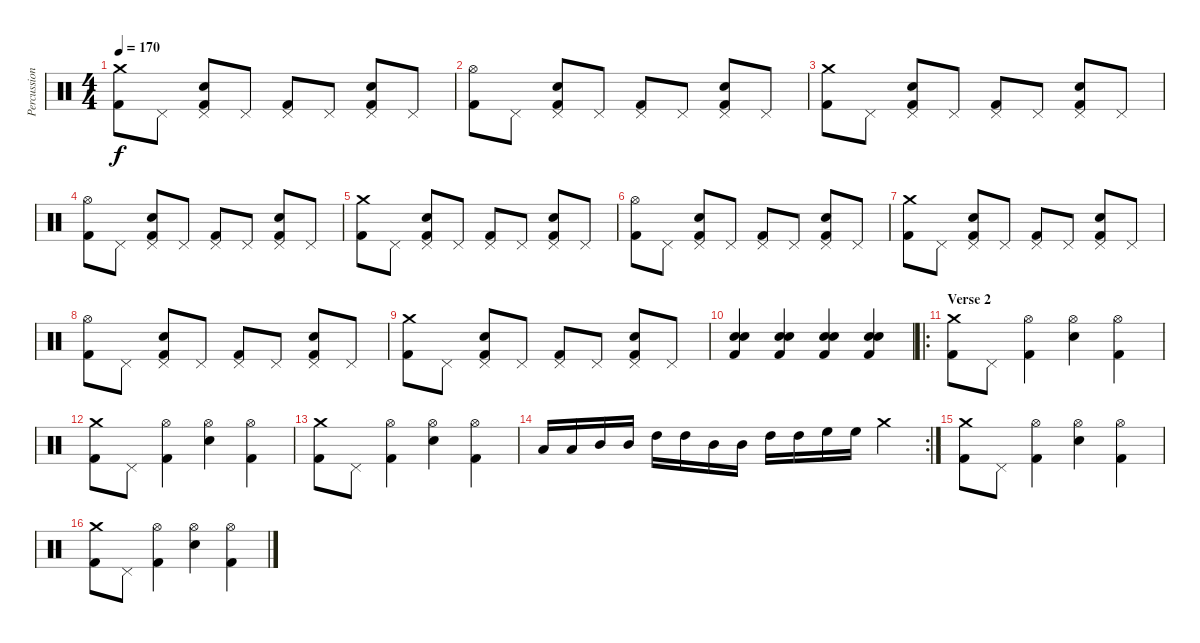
\track ("Percussion" "Percussion") {instrument percussion}
\staff {score}
\articulation defaults
\ts (4 4)
\tempo 170
\clef neutral
\ks c
("Crash medium (hit)" "Kick (hit) 2").8{dy f} "Pedal Hi-Hat (hit)".8 ("Pedal Hi-Hat (hit)" "Electric Snare (hit)" "Kick (hit) 2").8 "Pedal Hi-Hat (hit)".8 ("Pedal Hi-Hat (hit)" "Kick (hit) 2").8 "Pedal Hi-Hat (hit)".8 ("Pedal Hi-Hat (hit)" "Electric Snare (hit)" "Kick (hit) 2").8 "Pedal Hi-Hat (hit)".8 |
("Hi-Hat (open)" "Kick (hit) 2").8 "Pedal Hi-Hat (hit)".8 ("Pedal Hi-Hat (hit)" "Electric Snare (hit)" "Kick (hit) 2").8 "Pedal Hi-Hat (hit)".8 ("Pedal Hi-Hat (hit)" "Kick (hit) 2").8 "Pedal Hi-Hat (hit)".8 ("Pedal Hi-Hat (hit)" "Electric Snare (hit)" "Kick (hit) 2").8 "Pedal Hi-Hat (hit)".8 |
("Crash medium (hit)" "Kick (hit) 2").8 "Pedal Hi-Hat (hit)".8 ("Pedal Hi-Hat (hit)" "Electric Snare (hit)" "Kick (hit) 2").8 "Pedal Hi-Hat (hit)".8 ("Pedal Hi-Hat (hit)" "Kick (hit) 2").8 "Pedal Hi-Hat (hit)".8 ("Pedal Hi-Hat (hit)" "Electric Snare (hit)" "Kick (hit) 2").8 "Pedal Hi-Hat (hit)".8 |
("Hi-Hat (open)" "Kick (hit) 2").8 "Pedal Hi-Hat (hit)".8 ("Pedal Hi-Hat (hit)" "Electric Snare (hit)" "Kick (hit) 2").8 "Pedal Hi-Hat (hit)".8 ("Pedal Hi-Hat (hit)" "Kick (hit) 2").8 "Pedal Hi-Hat (hit)".8 ("Pedal Hi-Hat (hit)" "Electric Snare (hit)" "Kick (hit) 2").8 "Pedal Hi-Hat (hit)".8 |
("Crash medium (hit)" "Kick (hit) 2").8 "Pedal Hi-Hat (hit)".8 ("Pedal Hi-Hat (hit)" "Electric Snare (hit)" "Kick (hit) 2").8 "Pedal Hi-Hat (hit)".8 ("Pedal Hi-Hat (hit)" "Kick (hit) 2").8 "Pedal Hi-Hat (hit)".8 ("Pedal Hi-Hat (hit)" "Electric Snare (hit)" "Kick (hit) 2").8 "Pedal Hi-Hat (hit)".8 |
("Hi-Hat (open)" "Kick (hit) 2").8 "Pedal Hi-Hat (hit)".8 ("Pedal Hi-Hat (hit)" "Electric Snare (hit)" "Kick (hit) 2").8 "Pedal Hi-Hat (hit)".8 ("Pedal Hi-Hat (hit)" "Kick (hit) 2").8 "Pedal Hi-Hat (hit)".8 ("Pedal Hi-Hat (hit)" "Electric Snare (hit)" "Kick (hit) 2").8 "Pedal Hi-Hat (hit)".8 |
("Crash medium (hit)" "Kick (hit) 2").8 "Pedal Hi-Hat (hit)".8 ("Pedal Hi-Hat (hit)" "Electric Snare (hit)" "Kick (hit) 2").8 "Pedal Hi-Hat (hit)".8 ("Pedal Hi-Hat (hit)" "Kick (hit) 2").8 "Pedal Hi-Hat (hit)".8 ("Pedal Hi-Hat (hit)" "Electric Snare (hit)" "Kick (hit) 2").8 "Pedal Hi-Hat (hit)".8 |
("Hi-Hat (open)" "Kick (hit) 2").8 "Pedal Hi-Hat (hit)".8 ("Pedal Hi-Hat (hit)" "Electric Snare (hit)" "Kick (hit) 2").8 "Pedal Hi-Hat (hit)".8 ("Pedal Hi-Hat (hit)" "Kick (hit) 2").8 "Pedal Hi-Hat (hit)".8 ("Pedal Hi-Hat (hit)" "Electric Snare (hit)" "Kick (hit) 2").8 "Pedal Hi-Hat (hit)".8 |
("Crash medium (hit)" "Kick (hit) 2").8 "Pedal Hi-Hat (hit)".8 ("Pedal Hi-Hat (hit)" "Electric Snare (hit)" "Kick (hit) 2").8 "Pedal Hi-Hat (hit)".8 ("Pedal Hi-Hat (hit)" "Kick (hit) 2").8 "Pedal Hi-Hat (hit)".8 ("Pedal Hi-Hat (hit)" "Electric Snare (hit)" "Kick (hit) 2").8 "Pedal Hi-Hat (hit)".8 |
("Electric Snare (hit)" "Electric Snare (hit)" "Kick (hit) 2").4 ("Electric Snare (hit)" "Electric Snare (hit)" "Kick (hit) 2").4 ("Electric Snare (hit)" "Electric Snare (hit)" "Kick (hit) 2").4 ("Electric Snare (hit)" "Electric Snare (hit)" "Kick (hit) 2").4 |
\ro
\section ("" "Verse 2")
("Crash medium (hit)" "Kick (hit) 2").8 "Pedal Hi-Hat (hit)".8 ("Hi-Hat (open)" "Kick (hit) 2").4 ("Hi-Hat (open)" "Electric Snare (hit)").4 ("Hi-Hat (open)" "Kick (hit) 2").4 |
("Crash medium (hit)" "Kick (hit) 2").8 "Pedal Hi-Hat (hit)".8 ("Hi-Hat (open)" "Kick (hit) 2").4 ("Hi-Hat (open)" "Electric Snare (hit)").4 ("Hi-Hat (open)" "Kick (hit) 2").4 |
("Crash medium (hit)" "Kick (hit) 2").8 "Pedal Hi-Hat (hit)".8 ("Hi-Hat (open)" "Kick (hit) 2").4 ("Hi-Hat (open)" "Electric Snare (hit)").4 ("Hi-Hat (open)" "Kick (hit) 2").4 |
\rc 2 "Low Tom (hit)".16 "Low Tom (hit)".16 "Mid Tom (hit)".16 "Mid Tom (hit)".16 "High Tom (hit)".16 "High Tom (hit)".16 "Mid Tom (hit)".16 "Mid Tom (hit)".16 "High Tom (hit)".16 "High Tom (hit)".16 "High Floor Tom (hit)".16 "High Floor Tom (hit)".16 "Crash medium (hit)".4
|
("Crash medium (hit)" "Kick (hit) 2").8 "Pedal Hi-Hat (hit)".8 ("Hi-Hat (open)" "Kick (hit) 2").4 ("Hi-Hat (open)" "Electric Snare (hit)").4 ("Hi-Hat (open)" "Kick (hit) 2").4 |
("Crash medium (hit)" "Kick (hit) 2").8 "Pedal Hi-Hat (hit)".8 ("Hi-Hat (open)" "Kick (hit) 2").4 ("Hi-Hat (open)" "Electric Snare (hit)").4 ("Hi-Hat (open)" "Kick (hit) 2").4
